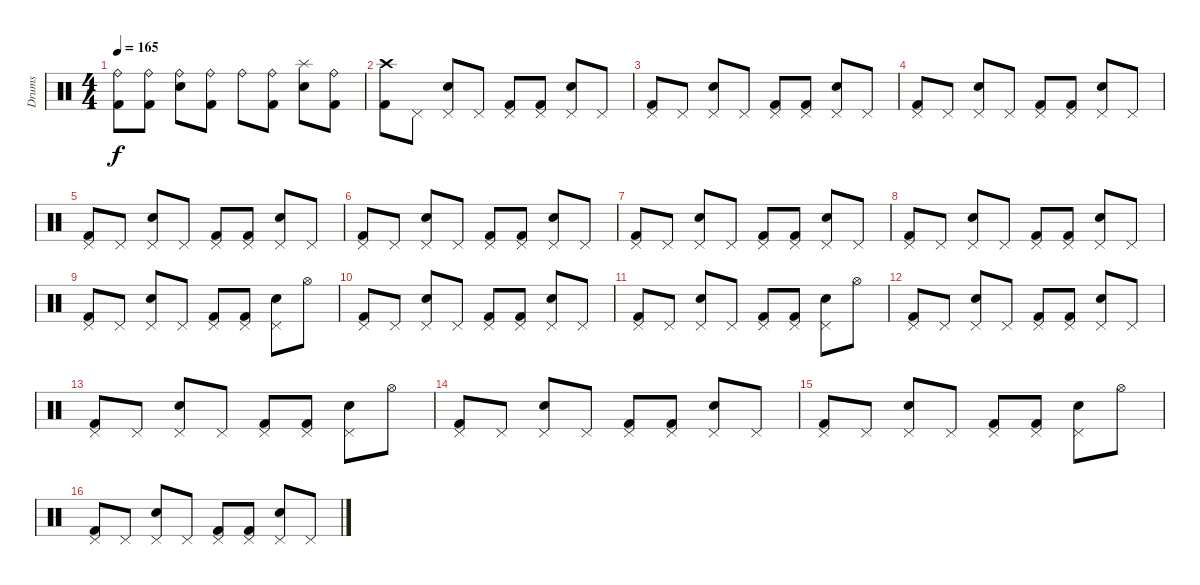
\track ("Drums" "Drums") {instrument percussion}
\staff {score}
\articulation defaults
\ts (4 4)
\tempo 165
\clef neutral
\ks c
("Ride (bell)" "Kick (hit) 2").8{dy f} ("Ride (bell)" "Kick (hit) 2").8 ("Ride (bell)" "Snare (hit) 2").8 ("Ride (bell)" "Kick (hit) 2").8 "Ride (bell)".8 ("Ride (bell)" "Kick (hit) 2").8 ("Splash (hit)" "Snare (hit) 2").8 ("Ride (bell)" "Kick (hit) 2").8 |
("Crash high (hit)" "Kick (hit) 2").8 "Pedal Hi-Hat (hit)".8 ("Pedal Hi-Hat (hit)" "Snare (hit) 2").8 "Pedal Hi-Hat (hit)".8 ("Pedal Hi-Hat (hit)" "Kick (hit) 2").8 ("Pedal Hi-Hat (hit)" "Kick (hit) 2").8 ("Pedal Hi-Hat (hit)" "Snare (hit) 2").8 "Pedal Hi-Hat (hit)".8 |
("Pedal Hi-Hat (hit)" "Kick (hit) 2").8 "Pedal Hi-Hat (hit)".8 ("Pedal Hi-Hat (hit)" "Snare (hit) 2").8 "Pedal Hi-Hat (hit)".8 ("Pedal Hi-Hat (hit)" "Kick (hit) 2").8 ("Pedal Hi-Hat (hit)" "Kick (hit) 2").8 ("Pedal Hi-Hat (hit)" "Snare (hit) 2").8 "Pedal Hi-Hat (hit)".8 |
("Pedal Hi-Hat (hit)" "Kick (hit) 2").8 "Pedal Hi-Hat (hit)".8 ("Pedal Hi-Hat (hit)" "Snare (hit) 2").8 "Pedal Hi-Hat (hit)".8 ("Pedal Hi-Hat (hit)" "Kick (hit) 2").8 ("Pedal Hi-Hat (hit)" "Kick (hit) 2").8 ("Pedal Hi-Hat (hit)" "Snare (hit) 2").8 "Pedal Hi-Hat (hit)".8 |
("Pedal Hi-Hat (hit)" "Kick (hit) 2").8 "Pedal Hi-Hat (hit)".8 ("Pedal Hi-Hat (hit)" "Snare (hit) 2").8 "Pedal Hi-Hat (hit)".8 ("Pedal Hi-Hat (hit)" "Kick (hit) 2").8 ("Pedal Hi-Hat (hit)" "Kick (hit) 2").8 ("Pedal Hi-Hat (hit)" "Snare (hit) 2").8 "Pedal Hi-Hat (hit)".8 |
("Pedal Hi-Hat (hit)" "Kick (hit) 2").8 "Pedal Hi-Hat (hit)".8 ("Pedal Hi-Hat (hit)" "Snare (hit) 2").8 "Pedal Hi-Hat (hit)".8 ("Pedal Hi-Hat (hit)" "Kick (hit) 2").8 ("Pedal Hi-Hat (hit)" "Kick (hit) 2").8 ("Pedal Hi-Hat (hit)" "Snare (hit) 2").8 "Pedal Hi-Hat (hit)".8 |
("Pedal Hi-Hat (hit)" "Kick (hit) 2").8 "Pedal Hi-Hat (hit)".8 ("Pedal Hi-Hat (hit)" "Snare (hit) 2").8 "Pedal Hi-Hat (hit)".8 ("Pedal Hi-Hat (hit)" "Kick (hit) 2").8 ("Pedal Hi-Hat (hit)" "Kick (hit) 2").8 ("Pedal Hi-Hat (hit)" "Snare (hit) 2").8 "Pedal Hi-Hat (hit)".8 |
("Pedal Hi-Hat (hit)" "Kick (hit) 2").8 "Pedal Hi-Hat (hit)".8 ("Pedal Hi-Hat (hit)" "Snare (hit) 2").8 "Pedal Hi-Hat (hit)".8 ("Pedal Hi-Hat (hit)" "Kick (hit) 2").8 ("Pedal Hi-Hat (hit)" "Kick (hit) 2").8 ("Pedal Hi-Hat (hit)" "Snare (hit) 2").8 "Pedal Hi-Hat (hit)".8 |
("Pedal Hi-Hat (hit)" "Kick (hit) 2").8 "Pedal Hi-Hat (hit)".8 ("Pedal Hi-Hat (hit)" "Snare (hit) 2").8 "Pedal Hi-Hat (hit)".8 ("Pedal Hi-Hat (hit)" "Kick (hit) 2").8 ("Pedal Hi-Hat (hit)" "Kick (hit) 2").8 ("Pedal Hi-Hat (hit)" "Snare (hit) 2").8 "Hi-Hat (open)".8 |
("Pedal Hi-Hat (hit)" "Kick (hit) 2").8 "Pedal Hi-Hat (hit)".8 ("Pedal Hi-Hat (hit)" "Snare (hit) 2").8 "Pedal Hi-Hat (hit)".8 ("Pedal Hi-Hat (hit)" "Kick (hit) 2").8 ("Pedal Hi-Hat (hit)" "Kick (hit) 2").8 ("Pedal Hi-Hat (hit)" "Snare (hit) 2").8 "Pedal Hi-Hat (hit)".8 |
("Pedal Hi-Hat (hit)" "Kick (hit) 2").8 "Pedal Hi-Hat (hit)".8 ("Pedal Hi-Hat (hit)" "Snare (hit) 2").8 "Pedal Hi-Hat (hit)".8 ("Pedal Hi-Hat (hit)" "Kick (hit) 2").8 ("Pedal Hi-Hat (hit)" "Kick (hit) 2").8 ("Pedal Hi-Hat (hit)" "Snare (hit) 2").8 "Hi-Hat (open)".8 |
("Pedal Hi-Hat (hit)" "Kick (hit) 2").8 "Pedal Hi-Hat (hit)".8 ("Pedal Hi-Hat (hit)" "Snare (hit) 2").8 "Pedal Hi-Hat (hit)".8 ("Pedal Hi-Hat (hit)" "Kick (hit) 2").8 ("Pedal Hi-Hat (hit)" "Kick (hit) 2").8 ("Pedal Hi-Hat (hit)" "Snare (hit) 2").8 "Pedal Hi-Hat (hit)".8 |
("Pedal Hi-Hat (hit)" "Kick (hit) 2").8 "Pedal Hi-Hat (hit)".8 ("Pedal Hi-Hat (hit)" "Snare (hit) 2").8 "Pedal Hi-Hat (hit)".8 ("Pedal Hi-Hat (hit)" "Kick (hit) 2").8 ("Pedal Hi-Hat (hit)" "Kick (hit) 2").8 ("Pedal Hi-Hat (hit)" "Snare (hit) 2").8 "Hi-Hat (open)".8 |
("Pedal Hi-Hat (hit)" "Kick (hit) 2").8 "Pedal Hi-Hat (hit)".8 ("Pedal Hi-Hat (hit)" "Snare (hit) 2").8 "Pedal Hi-Hat (hit)".8 ("Pedal Hi-Hat (hit)" "Kick (hit) 2").8 ("Pedal Hi-Hat (hit)" "Kick (hit) 2").8 ("Pedal Hi-Hat (hit)" "Snare (hit) 2").8 "Pedal Hi-Hat (hit)".8 |
("Pedal Hi-Hat (hit)" "Kick (hit) 2").8 "Pedal Hi-Hat (hit)".8 ("Pedal Hi-Hat (hit)" "Snare (hit) 2").8 "Pedal Hi-Hat (hit)".8 ("Pedal Hi-Hat (hit)" "Kick (hit) 2").8 ("Pedal Hi-Hat (hit)" "Kick (hit) 2").8 ("Pedal Hi-Hat (hit)" "Snare (hit) 2").8 "Hi-Hat (open)".8 |
("Pedal Hi-Hat (hit)" "Kick (hit) 2").8 "Pedal Hi-Hat (hit)".8 ("Pedal Hi-Hat (hit)" "Snare (hit) 2").8 "Pedal Hi-Hat (hit)".8 ("Pedal Hi-Hat (hit)" "Kick (hit) 2").8 ("Pedal Hi-Hat (hit)" "Kick (hit) 2").8 ("Pedal Hi-Hat (hit)" "Snare (hit) 2").8 "Pedal Hi-Hat (hit)".8
